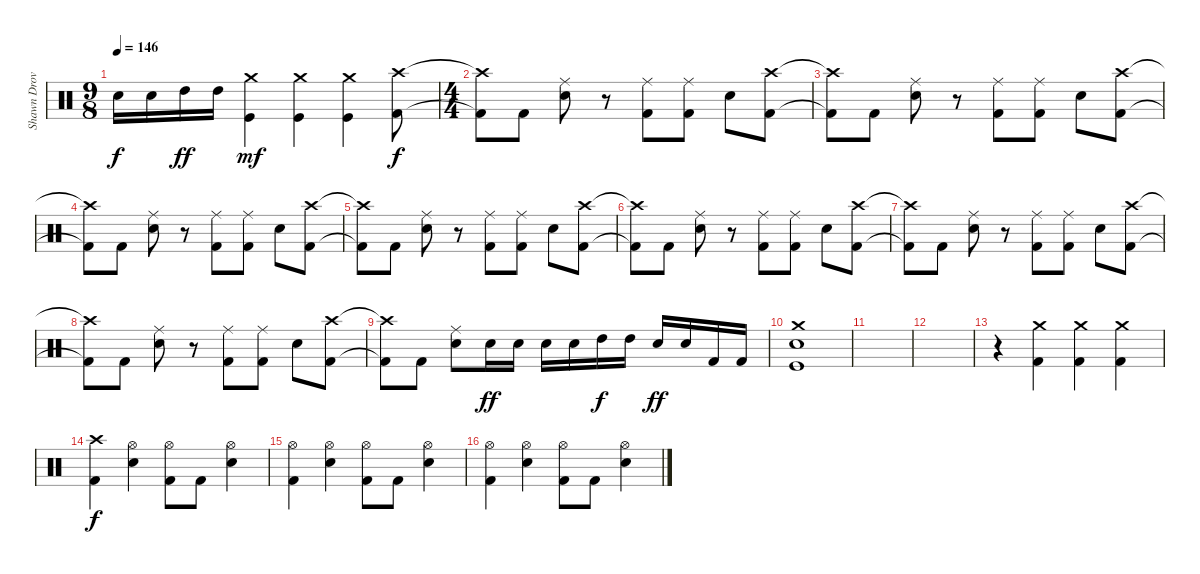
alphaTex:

\track ("Shawn Drover" "Shawn Drov") {instrument percussion}
\staff {score}
\articulation defaults
\ts (9 8)
\tempo 146
\clef neutral
\ks c "Snare (hit) 2".16{dy f} "Snare (hit) 2".16 "High Tom (hit)".16{dy ff} "High Tom (hit)".16
("Crash medium (hit)" "Kick (hit)").4{dy mf} ("Crash medium (hit)" "Kick (hit)").4 ("Crash medium (hit)" "Kick (hit)").4 ("Crash high (hit)" "Kick (hit) 2").8{dy f} |
\ts (4 4)
("Crash high (hit)"{t} "Kick (hit) 2"{t}).8 "Kick (hit) 2".8 ("Ride (middle)" "Snare (hit) 2").8 r.8 ("Ride (middle)" "Kick (hit) 2").8 ("Ride (middle)" "Kick (hit) 2").8 "Snare (hit) 2".8 ("Crash high (hit)" "Kick (hit) 2").8 |
("Crash high (hit)"{t} "Kick (hit) 2"{t}).8 "Kick (hit) 2".8 ("Ride (middle)" "Snare (hit) 2").8 r.8 ("Ride (middle)" "Kick (hit) 2").8 ("Ride (middle)" "Kick (hit) 2").8 "Snare (hit) 2".8 ("Crash high (hit)" "Kick (hit) 2").8 |
("Crash high (hit)"{t} "Kick (hit) 2"{t}).8 "Kick (hit) 2".8 ("Ride (middle)" "Snare (hit) 2").8 r.8 ("Ride (middle)" "Kick (hit) 2").8 ("Ride (middle)" "Kick (hit) 2").8 "Snare (hit) 2".8 ("Crash high (hit)" "Kick (hit) 2").8 |
("Crash high (hit)"{t} "Kick (hit) 2"{t}).8 "Kick (hit) 2".8 ("Ride (middle)" "Snare (hit) 2").8 r.8 ("Ride (middle)" "Kick (hit) 2").8 ("Ride (middle)" "Kick (hit) 2").8 "Snare (hit) 2".8 ("Crash high (hit)" "Kick (hit) 2").8 |
("Crash high (hit)"{t} "Kick (hit) 2"{t}).8 "Kick (hit) 2".8 ("Ride (middle)" "Snare (hit) 2").8 r.8 ("Ride (middle)" "Kick (hit) 2").8 ("Ride (middle)" "Kick (hit) 2").8 "Snare (hit) 2".8 ("Crash high (hit)" "Kick (hit) 2").8 |
("Crash high (hit)"{t} "Kick (hit) 2"{t}).8 "Kick (hit) 2".8 ("Ride (middle)" "Snare (hit) 2").8 r.8 ("Ride (middle)" "Kick (hit) 2").8 ("Ride (middle)" "Kick (hit) 2").8 "Snare (hit) 2".8 ("Crash high (hit)" "Kick (hit) 2").8 |
("Crash high (hit)"{t} "Kick (hit) 2"{t}).8 "Kick (hit) 2".8 ("Ride (middle)" "Snare (hit) 2").8 r.8 ("Ride (middle)" "Kick (hit) 2").8 ("Ride (middle)" "Kick (hit) 2").8 "Snare (hit) 2".8 ("Crash high (hit)" "Kick (hit) 2").8 |
("Crash high (hit)"{t} "Kick (hit) 2"{t}).8 "Kick (hit) 2".8 ("Ride (middle)" "Snare (hit) 2").8 "Snare (hit) 2".16{dy ff} "Snare (hit) 2".16 "Snare (hit) 2".16 "Snare (hit) 2".16 "High Tom (hit)".16{dy f} "High Tom (hit)".16 "Snare (hit) 2".16{dy ff} "Snare (hit) 2".16 "Kick (hit) 2".16 "Kick (hit) 2".16 |
("Crash medium (hit)" "Snare (hit) 2" "Kick (hit)").1 |
|
|
r.4 ("Crash medium (hit)" "Kick (hit) 2").4 ("Crash medium (hit)" "Kick (hit) 2").4 ("Crash medium (hit)" "Kick (hit) 2").4 |
("Crash high (hit)" "Kick (hit) 2").4{dy f} ("Hi-Hat (open)" "Snare (hit) 2").4 ("Hi-Hat (open)" "Kick (hit) 2").8 "Kick (hit) 2".8 ("Hi-Hat (open)" "Snare (hit) 2").4 |
("Hi-Hat (open)" "Kick (hit) 2").4 ("Hi-Hat (open)" "Snare (hit) 2").4 ("Hi-Hat (open)" "Kick (hit) 2").8 "Kick (hit) 2".8 ("Hi-Hat (open)" "Snare (hit) 2").4 |
("Hi-Hat (open)" "Kick (hit) 2").4 ("Hi-Hat (open)" "Snare (hit) 2").4 ("Hi-Hat (open)" "Kick (hit) 2").8 "Kick (hit) 2".8 ("Hi-Hat (open)" "Snare (hit) 2").4
